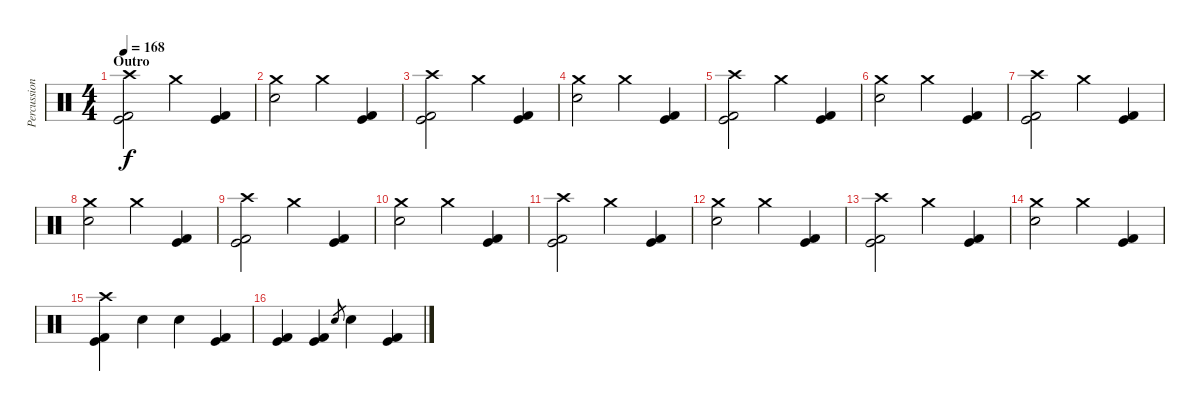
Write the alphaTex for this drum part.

\track ("Percussion" "Percussion") {instrument percussion}
\staff {score}
\articulation defaults
\ts (4 4)
\section ("" "Outro")
\tempo 167
\tempo 168
\clef neutral
\ks c
("Crash high (hit)" "Kick (hit)" "Kick (hit) 2").2{dy f} "Crash medium (hit)".4 ("Kick (hit)" "Kick (hit) 2").4 |
("Crash medium (hit)" "Electric Snare (hit)").2 "Crash medium (hit)".4 ("Kick (hit)" "Kick (hit) 2").4 |
("Crash high (hit)" "Kick (hit)" "Kick (hit) 2").2 "Crash medium (hit)".4 ("Kick (hit)" "Kick (hit) 2").4 |
("Crash medium (hit)" "Electric Snare (hit)").2 "Crash medium (hit)".4 ("Kick (hit)" "Kick (hit) 2").4 |
("Crash high (hit)" "Kick (hit)" "Kick (hit) 2").2 "Crash medium (hit)".4 ("Kick (hit)" "Kick (hit) 2").4 |
("Crash medium (hit)" "Electric Snare (hit)").2 "Crash medium (hit)".4 ("Kick (hit)" "Kick (hit) 2").4 |
("Crash high (hit)" "Kick (hit)" "Kick (hit) 2").2 "Crash medium (hit)".4 ("Kick (hit)" "Kick (hit) 2").4 |
("Crash medium (hit)" "Electric Snare (hit)").2 "Crash medium (hit)".4 ("Kick (hit)" "Kick (hit) 2").4 |
("Crash high (hit)" "Kick (hit)" "Kick (hit) 2").2 "Crash medium (hit)".4 ("Kick (hit)" "Kick (hit) 2").4 |
("Crash medium (hit)" "Electric Snare (hit)").2 "Crash medium (hit)".4 ("Kick (hit)" "Kick (hit) 2").4 |
("Crash high (hit)" "Kick (hit)" "Kick (hit) 2").2 "Crash medium (hit)".4 ("Kick (hit)" "Kick (hit) 2").4 |
("Crash medium (hit)" "Electric Snare (hit)").2 "Crash medium (hit)".4 ("Kick (hit)" "Kick (hit) 2").4 |
("Crash high (hit)" "Kick (hit)" "Kick (hit) 2").2 "Crash medium (hit)".4 ("Kick (hit)" "Kick (hit) 2").4 |
("Crash medium (hit)" "Electric Snare (hit)").2 "Crash medium (hit)".4 ("Kick (hit)" "Kick (hit) 2").4 |
("Crash high (hit)" "Kick (hit)" "Kick (hit) 2").4 "Electric Snare (hit)".4 "Electric Snare (hit)".4 ("Kick (hit)" "Kick (hit) 2").4 |
("Kick (hit)" "Kick (hit) 2").4 ("Kick (hit)" "Kick (hit) 2").4 "Electric Snare (hit)".8{gr} "Electric Snare (hit)".4 ("Kick (hit)" "Kick (hit) 2").4
